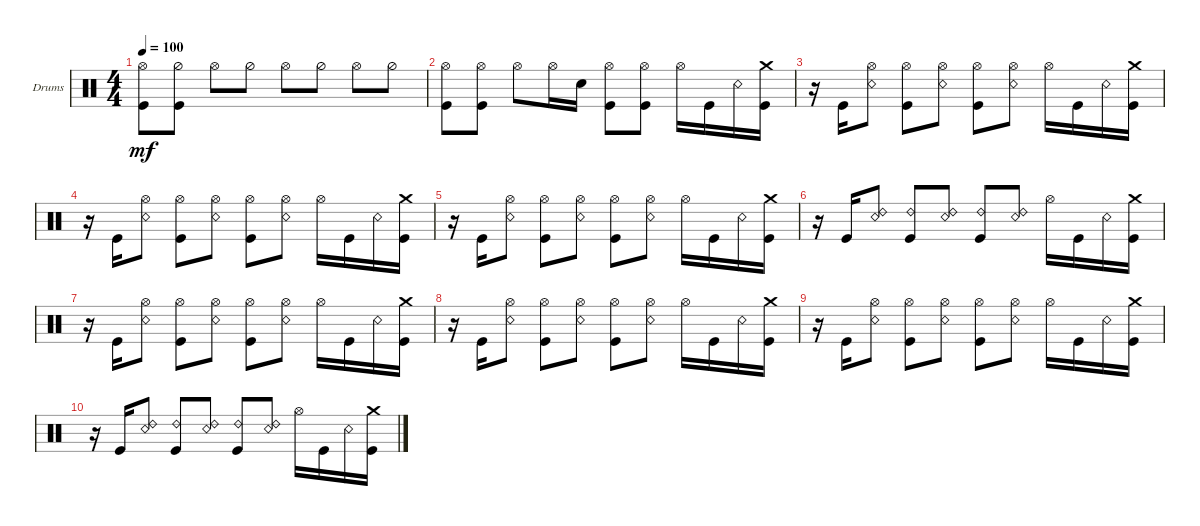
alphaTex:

\defaultSystemsLayout 4
\bracketExtendMode groupsimilarinstruments
\firstSystemTrackNameOrientation horizontal
\otherSystemsTrackNameOrientation horizontal
\track ("Drumkit" "Drums") {instrument percussion}
\staff {score}
\articulation defaults
\ts (4 4)
\tempo 100
\clef neutral
\ks c
("Hi-Hat (open)" "Kick (hit)").8{dy mf} ("Hi-Hat (half)" "Kick (hit)").8 "Hi-Hat (open)".8 "Hi-Hat (half)".8 "Hi-Hat (open)".8 "Hi-Hat (half)".8 "Hi-Hat (open)".8 "Hi-Hat (half)".8 |
("Hi-Hat (open)" "Kick (hit)").8 ("Hi-Hat (open)" "Kick (hit)").8 "Hi-Hat (open)".8 "Hi-Hat (open)".16 "Snare (hit) 2".16 ("Hi-Hat (open)" "Kick (hit)").8 ("Hi-Hat (open)" "Kick (hit)").8 "Hi-Hat (open)".16 "Kick (hit)".16 "Snare (rim shot)".16 ("Kick (hit)" "Crash medium (hit)").16 |
r.16 "Kick (hit)".16 ("Hi-Hat (open)" "Snare (rim shot)").8 ("Hi-Hat (open)" "Kick (hit)").8 ("Hi-Hat (open)" "Snare (rim shot)").8 ("Hi-Hat (open)" "Kick (hit)").8 ("Hi-Hat (open)" "Snare (rim shot)").8 "Hi-Hat (open)".16 "Kick (hit)".16 "Snare (rim shot)".16 ("Crash medium (hit)" "Kick (hit)").16 |
r.16 "Kick (hit)".16 ("Hi-Hat (open)" "Snare (rim shot)").8 ("Hi-Hat (open)" "Kick (hit)").8 ("Hi-Hat (open)" "Snare (rim shot)").8 ("Hi-Hat (open)" "Kick (hit)").8 ("Hi-Hat (open)" "Snare (rim shot)").8 "Hi-Hat (open)".16 "Kick (hit)".16 "Snare (rim shot)".16 ("Crash medium (hit)" "Kick (hit)").16 |
r.16 "Kick (hit)".16 ("Hi-Hat (open)" "Snare (rim shot)").8 ("Hi-Hat (open)" "Kick (hit)").8 ("Hi-Hat (open)" "Snare (rim shot)").8 ("Hi-Hat (open)" "Kick (hit)").8 ("Hi-Hat (open)" "Snare (rim shot)").8 "Hi-Hat (open)".16 "Kick (hit)".16 "Snare (rim shot)".16 ("Crash medium (hit)" "Kick (hit)").16 |
r.16 "Kick (hit)".16 ("Snare (rim shot)" "Ride (bell) 2").8 ("Kick (hit)" "Ride (bell) 2").8 ("Snare (rim shot)" "Ride (bell) 2").8 ("Kick (hit)" "Ride (bell) 2").8 ("Snare (rim shot)" "Ride (bell) 2").8 "Hi-Hat (open)".16 "Kick (hit)".16 "Snare (rim shot)".16 ("Crash medium (hit)" "Kick (hit)").16 |
r.16 "Kick (hit)".16 ("Hi-Hat (open)" "Snare (rim shot)").8 ("Hi-Hat (open)" "Kick (hit)").8 ("Hi-Hat (open)" "Snare (rim shot)").8 ("Hi-Hat (open)" "Kick (hit)").8 ("Hi-Hat (open)" "Snare (rim shot)").8 "Hi-Hat (open)".16 "Kick (hit)".16 "Snare (rim shot)".16 ("Crash medium (hit)" "Kick (hit)").16 |
r.16 "Kick (hit)".16 ("Hi-Hat (open)" "Snare (rim shot)").8 ("Hi-Hat (open)" "Kick (hit)").8 ("Hi-Hat (open)" "Snare (rim shot)").8 ("Hi-Hat (open)" "Kick (hit)").8 ("Hi-Hat (open)" "Snare (rim shot)").8 "Hi-Hat (open)".16 "Kick (hit)".16 "Snare (rim shot)".16 ("Crash medium (hit)" "Kick (hit)").16 |
r.16 "Kick (hit)".16 ("Hi-Hat (open)" "Snare (rim shot)").8 ("Hi-Hat (open)" "Kick (hit)").8 ("Hi-Hat (open)" "Snare (rim shot)").8 ("Hi-Hat (open)" "Kick (hit)").8 ("Hi-Hat (open)" "Snare (rim shot)").8 "Hi-Hat (open)".16 "Kick (hit)".16 "Snare (rim shot)".16 ("Crash medium (hit)" "Kick (hit)").16 |
r.16 "Kick (hit)".16 ("Snare (rim shot)" "Ride (bell) 2").8 ("Kick (hit)" "Ride (bell) 2").8 ("Snare (rim shot)" "Ride (bell) 2").8 ("Kick (hit)" "Ride (bell) 2").8 ("Snare (rim shot)" "Ride (bell) 2").8 "Hi-Hat (open)".16 "Kick (hit)".16 "Snare (rim shot)".16 ("Crash medium (hit)" "Kick (hit)").16
